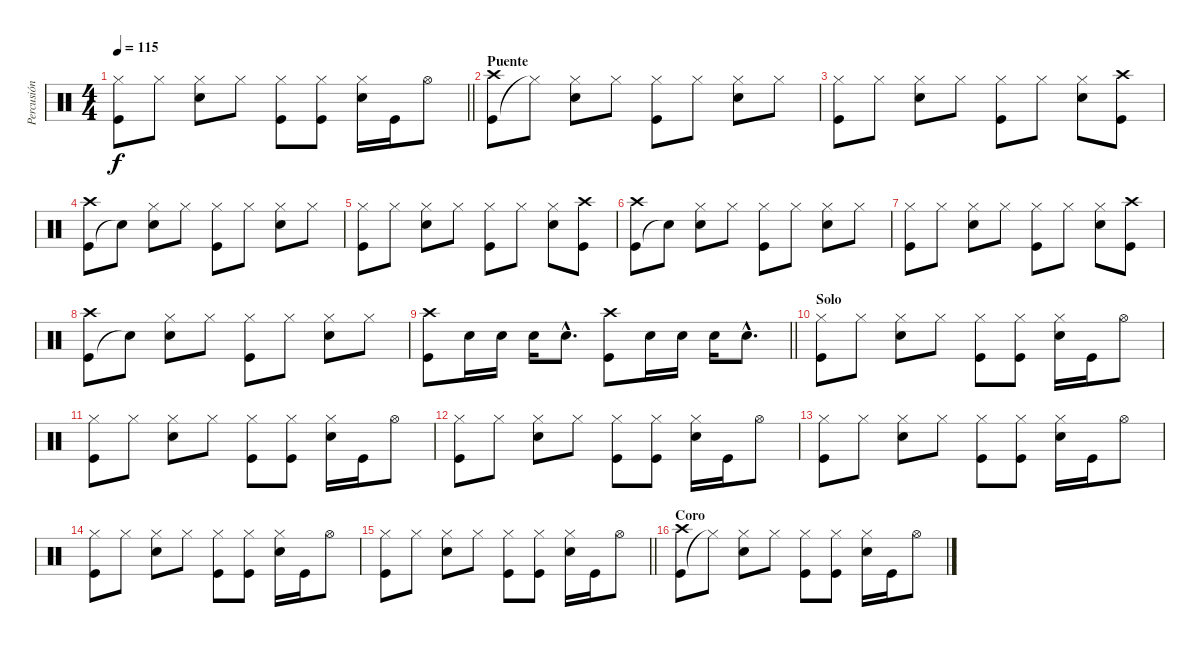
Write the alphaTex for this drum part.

\track ("Percusión" "Percusión") {instrument percussion}
\staff {score}
\articulation defaults
\ts (4 4)
\tempo 115
\clef neutral
\barLineRight lightlight
\ks c
("Kick (hit)" "Hi-Hat (closed)").8{dy f} "Hi-Hat (closed)".8 ("Snare (hit) 2" "Hi-Hat (closed)").8 "Hi-Hat (closed)".8 ("Kick (hit)" "Hi-Hat (closed)").8 ("Kick (hit)" "Hi-Hat (closed)").8 ("Snare (hit) 2" "Hi-Hat (closed)").16 "Kick (hit)".16 "Hi-Hat (open)".8 |
\section ("" "Puente")
("Kick (hit)" "Crash high (hit)").8 "Hi-Hat (closed)"{t}.8 ("Snare (hit) 2" "Hi-Hat (closed)").8 "Hi-Hat (closed)".8 ("Kick (hit)" "Hi-Hat (closed)").8 "Hi-Hat (closed)".8 ("Snare (hit) 2" "Hi-Hat (closed)").8 "Hi-Hat (closed)".8 |
("Kick (hit)" "Hi-Hat (closed)").8 "Hi-Hat (closed)".8 ("Snare (hit) 2" "Hi-Hat (closed)").8 "Hi-Hat (closed)".8 ("Kick (hit)" "Hi-Hat (closed)").8 "Hi-Hat (closed)".8 ("Snare (hit) 2" "Hi-Hat (closed)").8 ("Kick (hit)" "Crash high (hit)").8 |
("Kick (hit)" "Crash high (hit)").8 "Snare (hit)"{t}.8 ("Snare (hit) 2" "Hi-Hat (closed)").8 "Hi-Hat (closed)".8 ("Kick (hit)" "Hi-Hat (closed)").8 "Hi-Hat (closed)".8 ("Snare (hit) 2" "Hi-Hat (closed)").8 "Hi-Hat (closed)".8 |
("Kick (hit)" "Hi-Hat (closed)").8 "Hi-Hat (closed)".8 ("Snare (hit) 2" "Hi-Hat (closed)").8 "Hi-Hat (closed)".8 ("Kick (hit)" "Hi-Hat (closed)").8 "Hi-Hat (closed)".8 ("Snare (hit) 2" "Hi-Hat (closed)").8 ("Kick (hit)" "Crash high (hit)").8 |
("Kick (hit)" "Crash high (hit)").8 "Snare (hit)"{t}.8 ("Snare (hit) 2" "Hi-Hat (closed)").8 "Hi-Hat (closed)".8 ("Kick (hit)" "Hi-Hat (closed)").8 "Hi-Hat (closed)".8 ("Snare (hit) 2" "Hi-Hat (closed)").8 "Hi-Hat (closed)".8 |
("Kick (hit)" "Hi-Hat (closed)").8 "Hi-Hat (closed)".8 ("Snare (hit) 2" "Hi-Hat (closed)").8 "Hi-Hat (closed)".8 ("Kick (hit)" "Hi-Hat (closed)").8 "Hi-Hat (closed)".8 ("Snare (hit) 2" "Hi-Hat (closed)").8 ("Kick (hit)" "Crash high (hit)").8 |
("Kick (hit)" "Crash high (hit)").8 "Snare (hit)"{t}.8 ("Snare (hit) 2" "Hi-Hat (closed)").8 "Hi-Hat (closed)".8 ("Kick (hit)" "Hi-Hat (closed)").8 "Hi-Hat (closed)".8 ("Snare (hit) 2" "Hi-Hat (closed)").8 "Hi-Hat (closed)".8 |
\barLineRight lightlight
("Kick (hit)" "Crash high (hit)").8 "Snare (hit) 2".16 "Snare (hit) 2".16 "Snare (hit) 2".16 "Snare (hit) 2"{hac}.8{d} ("Crash high (hit)" "Kick (hit)").8 "Snare (hit) 2".16 "Snare (hit) 2".16 "Snare (hit) 2".16 "Snare (hit) 2"{hac}.8{d} |
\section ("" "Solo")
("Kick (hit)" "Hi-Hat (closed)").8 "Hi-Hat (closed)".8 ("Snare (hit) 2" "Hi-Hat (closed)").8 "Hi-Hat (closed)".8 ("Kick (hit)" "Hi-Hat (closed)").8 ("Kick (hit)" "Hi-Hat (closed)").8 ("Snare (hit) 2" "Hi-Hat (closed)").16 "Kick (hit)".16 "Hi-Hat (open)".8 |
("Kick (hit)" "Hi-Hat (closed)").8 "Hi-Hat (closed)".8 ("Snare (hit) 2" "Hi-Hat (closed)").8 "Hi-Hat (closed)".8 ("Kick (hit)" "Hi-Hat (closed)").8 ("Kick (hit)" "Hi-Hat (closed)").8 ("Snare (hit) 2" "Hi-Hat (closed)").16 "Kick (hit)".16 "Hi-Hat (open)".8 |
("Kick (hit)" "Hi-Hat (closed)").8 "Hi-Hat (closed)".8 ("Snare (hit) 2" "Hi-Hat (closed)").8 "Hi-Hat (closed)".8 ("Kick (hit)" "Hi-Hat (closed)").8 ("Kick (hit)" "Hi-Hat (closed)").8 ("Snare (hit) 2" "Hi-Hat (closed)").16 "Kick (hit)".16 "Hi-Hat (open)".8 |
("Kick (hit)" "Hi-Hat (closed)").8 "Hi-Hat (closed)".8 ("Snare (hit) 2" "Hi-Hat (closed)").8 "Hi-Hat (closed)".8 ("Kick (hit)" "Hi-Hat (closed)").8 ("Kick (hit)" "Hi-Hat (closed)").8 ("Snare (hit) 2" "Hi-Hat (closed)").16 "Kick (hit)".16 "Hi-Hat (open)".8 |
("Kick (hit)" "Hi-Hat (closed)").8 "Hi-Hat (closed)".8 ("Snare (hit) 2" "Hi-Hat (closed)").8 "Hi-Hat (closed)".8 ("Kick (hit)" "Hi-Hat (closed)").8 ("Kick (hit)" "Hi-Hat (closed)").8 ("Snare (hit) 2" "Hi-Hat (closed)").16 "Kick (hit)".16 "Hi-Hat (open)".8 |
\barLineRight lightlight
("Kick (hit)" "Hi-Hat (closed)").8 "Hi-Hat (closed)".8 ("Snare (hit) 2" "Hi-Hat (closed)").8 "Hi-Hat (closed)".8 ("Kick (hit)" "Hi-Hat (closed)").8 ("Kick (hit)" "Hi-Hat (closed)").8 ("Snare (hit) 2" "Hi-Hat (closed)").16 "Kick (hit)".16 "Hi-Hat (open)".8 |
\section ("" "Coro")
("Kick (hit)" "Crash high (hit)").8 "Hi-Hat (closed)"{t}.8 ("Snare (hit) 2" "Hi-Hat (closed)").8 "Hi-Hat (closed)".8 ("Kick (hit)" "Hi-Hat (closed)").8 ("Kick (hit)" "Hi-Hat (closed)").8 ("Snare (hit) 2" "Hi-Hat (closed)").16 "Kick (hit)".16 "Hi-Hat (open)".8
